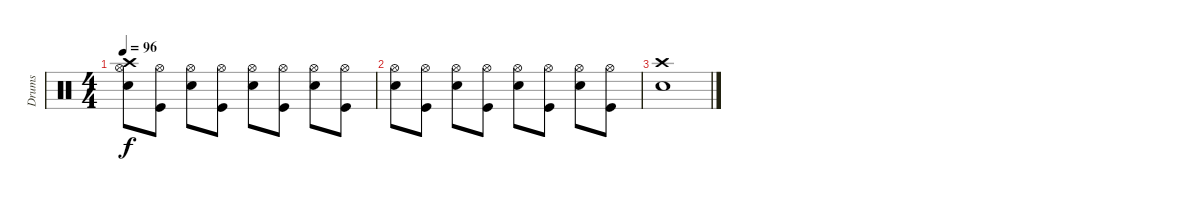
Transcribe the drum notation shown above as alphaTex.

\track ("Drums" "Drums") {instrument percussion}
\staff {score}
\articulation defaults
\ts (4 4)
\tempo 96
\clef neutral
\ks c
("Crash high (hit)" "Hi-Hat (open)" "Electric Snare (hit)").8{dy f} ("Hi-Hat (open)" "Kick (hit)").8 ("Hi-Hat (open)" "Electric Snare (hit)").8 ("Hi-Hat (open)" "Kick (hit)").8 ("Hi-Hat (open)" "Electric Snare (hit)").8 ("Hi-Hat (open)" "Kick (hit)").8 ("Hi-Hat (open)" "Electric Snare (hit)").8 ("Hi-Hat (open)" "Kick (hit)").8 |
("Hi-Hat (open)" "Electric Snare (hit)").8 ("Hi-Hat (open)" "Kick (hit)").8 ("Hi-Hat (open)" "Electric Snare (hit)").8 ("Hi-Hat (open)" "Kick (hit)").8 ("Hi-Hat (open)" "Electric Snare (hit)").8 ("Hi-Hat (open)" "Kick (hit)").8 ("Hi-Hat (open)" "Electric Snare (hit)").8 ("Hi-Hat (open)" "Kick (hit)").8 |
("Crash high (hit)" "Electric Snare (hit)").1
